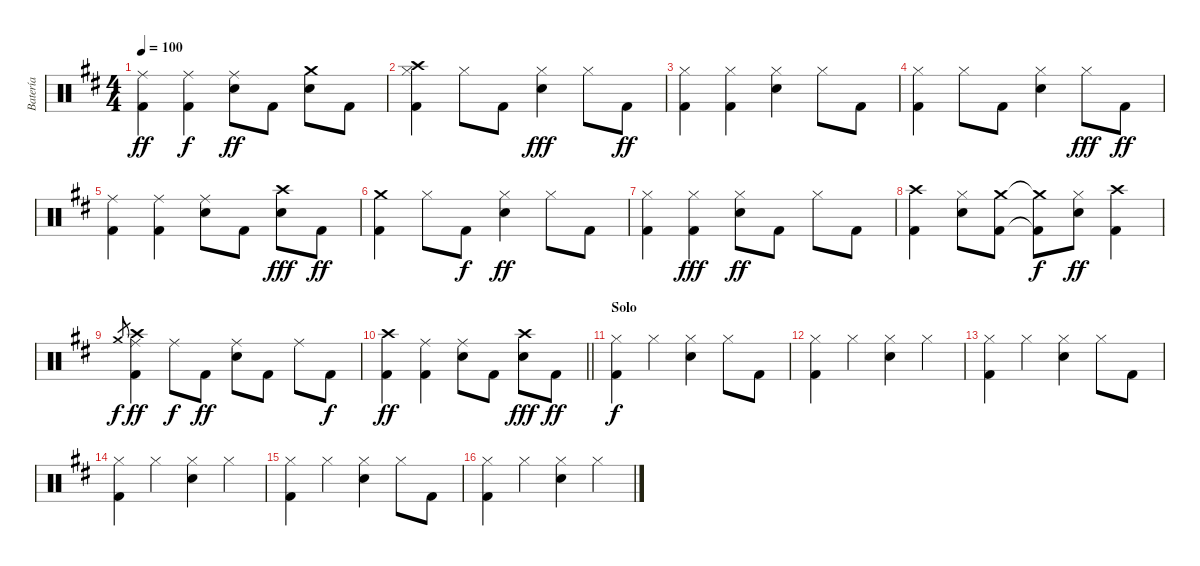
\track ("Batería" "Batería") {instrument percussion}
\staff {score}
\articulation defaults
\ts (4 4)
\tempo 100
\clef neutral
\ks bminor
("Ride (middle)" "Kick (hit) 2").4{dy ff} ("Ride (middle)" "Kick (hit) 2").4{dy f} ("Electric Snare (hit)" "Ride (middle)").8{dy ff} "Kick (hit) 2".8 ("Crash medium (hit)" "Electric Snare (hit)").8 "Kick (hit) 2".8 |
("Crash high (hit)" "Hi-Hat (closed)" "Kick (hit) 2").4 "Hi-Hat (closed)".8 "Kick (hit) 2".8 ("Electric Snare (hit)" "Hi-Hat (closed)").4{dy fff} "Hi-Hat (closed)".8 "Kick (hit) 2".8{dy ff} |
("Hi-Hat (closed)" "Kick (hit) 2").4 ("Hi-Hat (closed)" "Kick (hit) 2").4 ("Hi-Hat (closed)" "Electric Snare (hit)").4 "Hi-Hat (closed)".8 "Kick (hit) 2".8 |
("Hi-Hat (closed)" "Kick (hit) 2").4 "Hi-Hat (closed)".8 "Kick (hit) 2".8 ("Hi-Hat (closed)" "Electric Snare (hit)").4 "Hi-Hat (closed)".8{dy fff} "Kick (hit) 2".8{dy ff} |
("Ride (middle)" "Kick (hit) 2").4 ("Ride (middle)" "Kick (hit) 2").4 ("Ride (middle)" "Electric Snare (hit)").8 "Kick (hit) 2".8 ("Crash high (hit)" "Electric Snare (hit)").8{dy fff} "Kick (hit) 2".8{dy ff} |
("Crash medium (hit)" "Kick (hit) 2").4 "Hi-Hat (closed)".8 "Kick (hit) 2".8{dy f} ("Hi-Hat (closed)" "Electric Snare (hit)").4{dy ff} "Hi-Hat (closed)".8 "Kick (hit) 2".8 |
("Hi-Hat (closed)" "Kick (hit) 2").4 ("Hi-Hat (closed)" "Kick (hit) 2").4{dy fff} ("Hi-Hat (closed)" "Electric Snare (hit)").8{dy ff} "Kick (hit) 2".8 "Hi-Hat (closed)".8 "Kick (hit) 2".8 |
("Crash high (hit)" "Kick (hit) 2").4 ("Hi-Hat (closed)" "Electric Snare (hit)").8 ("Crash medium (hit)" "Kick (hit) 2").8 ("Crash medium (hit)"{t} "Kick (hit) 2"{t}).8{dy f} ("Hi-Hat (closed)" "Electric Snare (hit)").8{dy ff} ("Crash high (hit)" "Kick (hit) 2").4 |
"Crash medium (hit)".8{gr dy f} ("Crash high (hit)" "Ride (middle)" "Kick (hit) 2").4{dy ff} "Ride (middle)".8{dy f} "Kick (hit) 2".8{dy ff} ("Ride (middle)" "Electric Snare (hit)").8 "Kick (hit) 2".8 "Ride (middle)".8 "Kick (hit) 2".8{dy f} |
\barLineRight lightlight
("Crash high (hit)" "Kick (hit) 2").4{dy ff} ("Ride (middle)" "Kick (hit) 2").4 ("Ride (middle)" "Electric Snare (hit)").8 "Kick (hit) 2".8 ("Crash high (hit)" "Electric Snare (hit)").8{dy fff} "Kick (hit) 2".8{dy ff} |
\section ("" "Solo")
("Hi-Hat (closed)" "Kick (hit) 2").4{dy f} "Hi-Hat (closed)".4 ("Hi-Hat (closed)" "Snare (hit) 2").4 "Hi-Hat (closed)".8 "Kick (hit) 2".8 |
("Hi-Hat (closed)" "Kick (hit) 2").4 "Hi-Hat (closed)".4 ("Hi-Hat (closed)" "Snare (hit) 2").4 "Hi-Hat (closed)".4 |
("Hi-Hat (closed)" "Kick (hit) 2").4 "Hi-Hat (closed)".4 ("Hi-Hat (closed)" "Snare (hit) 2").4 "Hi-Hat (closed)".8 "Kick (hit) 2".8 |
("Hi-Hat (closed)" "Kick (hit) 2").4 "Hi-Hat (closed)".4 ("Hi-Hat (closed)" "Snare (hit) 2").4 "Hi-Hat (closed)".4 |
("Hi-Hat (closed)" "Kick (hit) 2").4 "Hi-Hat (closed)".4 ("Hi-Hat (closed)" "Snare (hit) 2").4 "Hi-Hat (closed)".8 "Kick (hit) 2".8 |
("Hi-Hat (closed)" "Kick (hit) 2").4 "Hi-Hat (closed)".4 ("Hi-Hat (closed)" "Snare (hit) 2").4 "Hi-Hat (closed)".4
